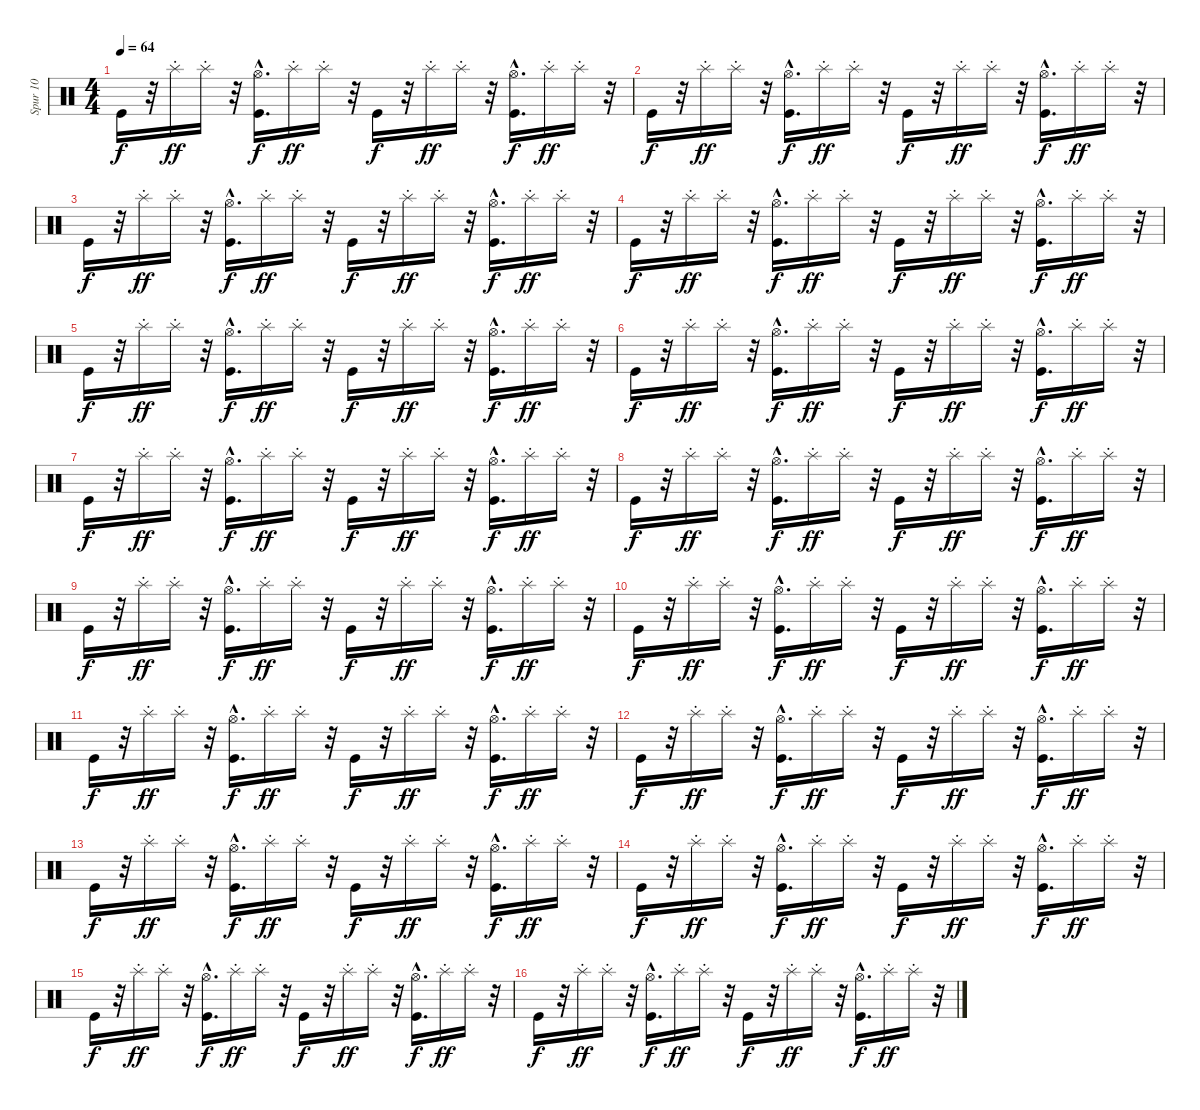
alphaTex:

\track ("Spur 10" "Spur 10") {instrument percussion}
\staff {score}
\articulation defaults
\ts (4 4)
\tempo 64
\clef neutral
\ks c "Kick (hit)".16{dy f}
r.32 "Splash (choke)".16{dy ff} "Splash (choke)".16 r.32 ("Kick (hit)" "Hi-Hat (open)"{hac}).16{d dy f} "Splash (choke)".16{dy ff} "Splash (choke)".16 r.32 "Kick (hit)".16{dy f} r.32 "Splash (choke)".16{dy ff} "Splash (choke)".16 r.32 ("Kick (hit)" "Hi-Hat (open)"{hac}).16{d dy f} "Splash (choke)".16{dy ff} "Splash (choke)".16 r.32 |
"Kick (hit)".16{dy f} r.32 "Splash (choke)".16{dy ff} "Splash (choke)".16 r.32 ("Kick (hit)" "Hi-Hat (open)"{hac}).16{d dy f} "Splash (choke)".16{dy ff} "Splash (choke)".16 r.32 "Kick (hit)".16{dy f} r.32 "Splash (choke)".16{dy ff} "Splash (choke)".16 r.32 ("Kick (hit)" "Hi-Hat (open)"{hac}).16{d dy f} "Splash (choke)".16{dy ff} "Splash (choke)".16 r.32 |
"Kick (hit)".16{dy f} r.32 "Splash (choke)".16{dy ff} "Splash (choke)".16 r.32 ("Kick (hit)" "Hi-Hat (open)"{hac}).16{d dy f} "Splash (choke)".16{dy ff} "Splash (choke)".16 r.32 "Kick (hit)".16{dy f} r.32 "Splash (choke)".16{dy ff} "Splash (choke)".16 r.32 ("Kick (hit)" "Hi-Hat (open)"{hac}).16{d dy f} "Splash (choke)".16{dy ff} "Splash (choke)".16 r.32 |
"Kick (hit)".16{dy f} r.32 "Splash (choke)".16{dy ff} "Splash (choke)".16 r.32 ("Kick (hit)" "Hi-Hat (open)"{hac}).16{d dy f} "Splash (choke)".16{dy ff} "Splash (choke)".16 r.32 "Kick (hit)".16{dy f} r.32 "Splash (choke)".16{dy ff} "Splash (choke)".16 r.32 ("Kick (hit)" "Hi-Hat (open)"{hac}).16{d dy f} "Splash (choke)".16{dy ff} "Splash (choke)".16 r.32 |
"Kick (hit)".16{dy f} r.32 "Splash (choke)".16{dy ff} "Splash (choke)".16 r.32 ("Kick (hit)" "Hi-Hat (open)"{hac}).16{d dy f} "Splash (choke)".16{dy ff} "Splash (choke)".16 r.32 "Kick (hit)".16{dy f} r.32 "Splash (choke)".16{dy ff} "Splash (choke)".16 r.32 ("Kick (hit)" "Hi-Hat (open)"{hac}).16{d dy f} "Splash (choke)".16{dy ff} "Splash (choke)".16 r.32 |
"Kick (hit)".16{dy f} r.32 "Splash (choke)".16{dy ff} "Splash (choke)".16 r.32 ("Kick (hit)" "Hi-Hat (open)"{hac}).16{d dy f} "Splash (choke)".16{dy ff} "Splash (choke)".16 r.32 "Kick (hit)".16{dy f} r.32 "Splash (choke)".16{dy ff} "Splash (choke)".16 r.32 ("Kick (hit)" "Hi-Hat (open)"{hac}).16{d dy f} "Splash (choke)".16{dy ff} "Splash (choke)".16 r.32 |
"Kick (hit)".16{dy f} r.32 "Splash (choke)".16{dy ff} "Splash (choke)".16 r.32 ("Kick (hit)" "Hi-Hat (open)"{hac}).16{d dy f} "Splash (choke)".16{dy ff} "Splash (choke)".16 r.32 "Kick (hit)".16{dy f} r.32 "Splash (choke)".16{dy ff} "Splash (choke)".16 r.32 ("Kick (hit)" "Hi-Hat (open)"{hac}).16{d dy f} "Splash (choke)".16{dy ff} "Splash (choke)".16 r.32 |
"Kick (hit)".16{dy f} r.32 "Splash (choke)".16{dy ff} "Splash (choke)".16 r.32 ("Kick (hit)" "Hi-Hat (open)"{hac}).16{d dy f} "Splash (choke)".16{dy ff} "Splash (choke)".16 r.32 "Kick (hit)".16{dy f} r.32 "Splash (choke)".16{dy ff} "Splash (choke)".16 r.32 ("Kick (hit)" "Hi-Hat (open)"{hac}).16{d dy f} "Splash (choke)".16{dy ff} "Splash (choke)".16 r.32 |
"Kick (hit)".16{dy f} r.32 "Splash (choke)".16{dy ff} "Splash (choke)".16 r.32 ("Kick (hit)" "Hi-Hat (open)"{hac}).16{d dy f} "Splash (choke)".16{dy ff} "Splash (choke)".16 r.32 "Kick (hit)".16{dy f} r.32 "Splash (choke)".16{dy ff} "Splash (choke)".16 r.32 ("Kick (hit)" "Hi-Hat (open)"{hac}).16{d dy f} "Splash (choke)".16{dy ff} "Splash (choke)".16 r.32 |
"Kick (hit)".16{dy f} r.32 "Splash (choke)".16{dy ff} "Splash (choke)".16 r.32 ("Kick (hit)" "Hi-Hat (open)"{hac}).16{d dy f} "Splash (choke)".16{dy ff} "Splash (choke)".16 r.32 "Kick (hit)".16{dy f} r.32 "Splash (choke)".16{dy ff} "Splash (choke)".16 r.32 ("Kick (hit)" "Hi-Hat (open)"{hac}).16{d dy f} "Splash (choke)".16{dy ff} "Splash (choke)".16 r.32 |
"Kick (hit)".16{dy f} r.32 "Splash (choke)".16{dy ff} "Splash (choke)".16 r.32 ("Kick (hit)" "Hi-Hat (open)"{hac}).16{d dy f} "Splash (choke)".16{dy ff} "Splash (choke)".16 r.32 "Kick (hit)".16{dy f} r.32 "Splash (choke)".16{dy ff} "Splash (choke)".16 r.32 ("Kick (hit)" "Hi-Hat (open)"{hac}).16{d dy f} "Splash (choke)".16{dy ff} "Splash (choke)".16 r.32 |
"Kick (hit)".16{dy f} r.32 "Splash (choke)".16{dy ff} "Splash (choke)".16 r.32 ("Kick (hit)" "Hi-Hat (open)"{hac}).16{d dy f} "Splash (choke)".16{dy ff} "Splash (choke)".16 r.32 "Kick (hit)".16{dy f} r.32 "Splash (choke)".16{dy ff} "Splash (choke)".16 r.32 ("Kick (hit)" "Hi-Hat (open)"{hac}).16{d dy f} "Splash (choke)".16{dy ff} "Splash (choke)".16 r.32 |
"Kick (hit)".16{dy f} r.32 "Splash (choke)".16{dy ff} "Splash (choke)".16 r.32 ("Kick (hit)" "Hi-Hat (open)"{hac}).16{d dy f} "Splash (choke)".16{dy ff} "Splash (choke)".16 r.32 "Kick (hit)".16{dy f} r.32 "Splash (choke)".16{dy ff} "Splash (choke)".16 r.32 ("Kick (hit)" "Hi-Hat (open)"{hac}).16{d dy f} "Splash (choke)".16{dy ff} "Splash (choke)".16 r.32 |
"Kick (hit)".16{dy f} r.32 "Splash (choke)".16{dy ff} "Splash (choke)".16 r.32 ("Kick (hit)" "Hi-Hat (open)"{hac}).16{d dy f} "Splash (choke)".16{dy ff} "Splash (choke)".16 r.32 "Kick (hit)".16{dy f} r.32 "Splash (choke)".16{dy ff} "Splash (choke)".16 r.32 ("Kick (hit)" "Hi-Hat (open)"{hac}).16{d dy f} "Splash (choke)".16{dy ff} "Splash (choke)".16 r.32 |
"Kick (hit)".16{dy f} r.32 "Splash (choke)".16{dy ff} "Splash (choke)".16 r.32 ("Kick (hit)" "Hi-Hat (open)"{hac}).16{d dy f} "Splash (choke)".16{dy ff} "Splash (choke)".16 r.32 "Kick (hit)".16{dy f} r.32 "Splash (choke)".16{dy ff} "Splash (choke)".16 r.32 ("Kick (hit)" "Hi-Hat (open)"{hac}).16{d dy f} "Splash (choke)".16{dy ff} "Splash (choke)".16 r.32 |
"Kick (hit)".16{dy f} r.32 "Splash (choke)".16{dy ff} "Splash (choke)".16 r.32 ("Kick (hit)" "Hi-Hat (open)"{hac}).16{d dy f} "Splash (choke)".16{dy ff} "Splash (choke)".16 r.32 "Kick (hit)".16{dy f} r.32 "Splash (choke)".16{dy ff} "Splash (choke)".16 r.32 ("Kick (hit)" "Hi-Hat (open)"{hac}).16{d dy f} "Splash (choke)".16{dy ff} "Splash (choke)".16 r.32
